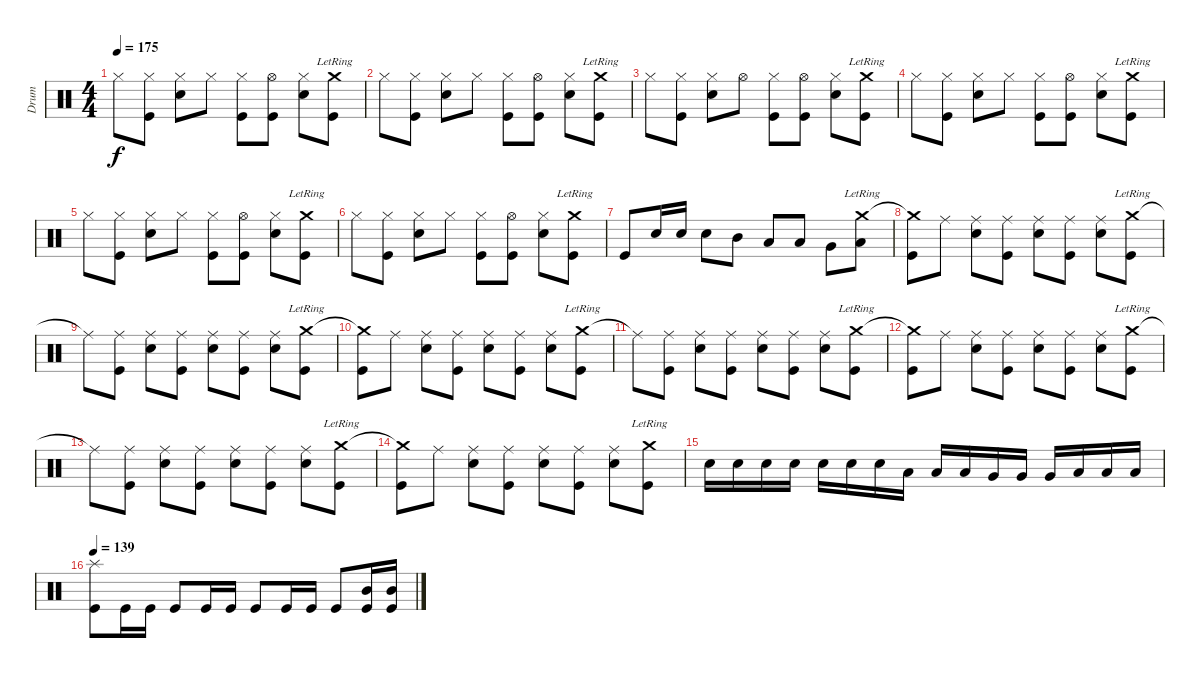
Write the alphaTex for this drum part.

\track ("Drum" "Drum") {instrument percussion}
\staff {score}
\articulation defaults
\ts (4 4)
\tempo 175
\clef neutral
\ks c "Hi-Hat (closed)".8{dy f}
("Hi-Hat (closed)" "Kick (hit)").8 ("Hi-Hat (closed)" "Snare (hit) 2").8 "Hi-Hat (closed)".8 ("Hi-Hat (closed)" "Kick (hit)").8 ("Hi-Hat (open)" "Kick (hit)").8 ("Hi-Hat (closed)" "Snare (hit) 2").8 ("Crash medium (hit)"{lr} "Kick (hit)").8 |
"Hi-Hat (closed)".8 ("Hi-Hat (closed)" "Kick (hit)").8 ("Hi-Hat (closed)" "Snare (hit) 2").8 "Hi-Hat (closed)".8 ("Hi-Hat (closed)" "Kick (hit)").8 ("Hi-Hat (open)" "Kick (hit)").8 ("Hi-Hat (closed)" "Snare (hit) 2").8 ("Crash medium (hit)"{lr} "Kick (hit)").8 |
"Hi-Hat (closed)".8 ("Hi-Hat (closed)" "Kick (hit)").8 ("Hi-Hat (closed)" "Snare (hit) 2").8 "Hi-Hat (open)".8 ("Hi-Hat (closed)" "Kick (hit)").8 ("Hi-Hat (open)" "Kick (hit)").8 ("Hi-Hat (closed)" "Snare (hit) 2").8 ("Crash medium (hit)"{lr} "Kick (hit)").8 |
"Hi-Hat (closed)".8 ("Hi-Hat (closed)" "Kick (hit)").8 ("Hi-Hat (closed)" "Snare (hit) 2").8 "Hi-Hat (closed)".8 ("Hi-Hat (closed)" "Kick (hit)").8 ("Hi-Hat (open)" "Kick (hit)").8 ("Hi-Hat (closed)" "Snare (hit) 2").8 ("Crash medium (hit)"{lr} "Kick (hit)").8 |
"Hi-Hat (closed)".8 ("Hi-Hat (closed)" "Kick (hit)").8 ("Hi-Hat (closed)" "Snare (hit) 2").8 "Hi-Hat (closed)".8 ("Hi-Hat (closed)" "Kick (hit)").8 ("Hi-Hat (open)" "Kick (hit)").8 ("Hi-Hat (closed)" "Snare (hit) 2").8 ("Crash medium (hit)"{lr} "Kick (hit)").8 |
"Hi-Hat (closed)".8 ("Hi-Hat (closed)" "Kick (hit)").8 ("Hi-Hat (closed)" "Snare (hit) 2").8 "Hi-Hat (closed)".8 ("Hi-Hat (closed)" "Kick (hit)").8 ("Hi-Hat (open)" "Kick (hit)").8 ("Hi-Hat (closed)" "Snare (hit) 2").8 ("Crash medium (hit)"{lr} "Kick (hit)").8 |
"Kick (hit)".8 "Snare (hit) 2".16 "Snare (hit) 2".16 "Snare (hit) 2".8 "Mid Tom (hit)".8 "Low Tom (hit)".8 "Low Tom (hit)".8 "Very Low Tom (hit)".8 ("Crash medium (hit)"{lr} "Low Floor Tom (hit)").8 |
("Crash medium (hit)"{t} "Kick (hit)").8 "Ride (middle)".8 ("Ride (middle)" "Snare (hit) 2").8 ("Ride (middle)" "Kick (hit)").8 ("Ride (middle)" "Snare (hit) 2").8 ("Ride (middle)" "Kick (hit)").8 ("Ride (middle)" "Snare (hit) 2").8 ("Crash medium (hit)"{lr} "Kick (hit)").8 |
"Ride (middle)"{t}.8 ("Ride (middle)" "Kick (hit)").8 ("Ride (middle)" "Snare (hit) 2").8 ("Ride (middle)" "Kick (hit)").8 ("Ride (middle)" "Snare (hit) 2").8 ("Ride (middle)" "Kick (hit)").8 ("Ride (middle)" "Snare (hit) 2").8 ("Crash medium (hit)"{lr} "Kick (hit)").8 |
("Crash medium (hit)"{t} "Kick (hit)").8 "Ride (middle)".8 ("Ride (middle)" "Snare (hit) 2").8 ("Ride (middle)" "Kick (hit)").8 ("Ride (middle)" "Snare (hit) 2").8 ("Ride (middle)" "Kick (hit)").8 ("Ride (middle)" "Snare (hit) 2").8 ("Crash medium (hit)"{lr} "Kick (hit)").8 |
"Ride (middle)"{t}.8 ("Ride (middle)" "Kick (hit)").8 ("Ride (middle)" "Snare (hit) 2").8 ("Ride (middle)" "Kick (hit)").8 ("Ride (middle)" "Snare (hit) 2").8 ("Ride (middle)" "Kick (hit)").8 ("Ride (middle)" "Snare (hit) 2").8 ("Crash medium (hit)"{lr} "Kick (hit)").8 |
("Crash medium (hit)"{t} "Kick (hit)").8 "Ride (middle)".8 ("Ride (middle)" "Snare (hit) 2").8 ("Ride (middle)" "Kick (hit)").8 ("Ride (middle)" "Snare (hit) 2").8 ("Ride (middle)" "Kick (hit)").8 ("Ride (middle)" "Snare (hit) 2").8 ("Crash medium (hit)"{lr} "Kick (hit)").8 |
"Ride (middle)"{t}.8 ("Ride (middle)" "Kick (hit)").8 ("Ride (middle)" "Snare (hit) 2").8 ("Ride (middle)" "Kick (hit)").8 ("Ride (middle)" "Snare (hit) 2").8 ("Ride (middle)" "Kick (hit)").8 ("Ride (middle)" "Snare (hit) 2").8 ("Crash medium (hit)"{lr} "Kick (hit)").8 |
("Crash medium (hit)"{t} "Kick (hit)").8 "Ride (middle)".8 ("Ride (middle)" "Snare (hit) 2").8 ("Ride (middle)" "Kick (hit)").8 ("Ride (middle)" "Snare (hit) 2").8 ("Ride (middle)" "Kick (hit)").8 ("Ride (middle)" "Snare (hit) 2").8 ("Crash medium (hit)"{lr} "Kick (hit)").8 |
"Snare (hit) 2".16 "Snare (hit) 2".16 "Snare (hit) 2".16 "Snare (hit) 2".16 "Snare (hit) 2".16 "Snare (hit) 2".16 "Snare (hit) 2".16 "Low Tom (hit)".16 "Low Tom (hit)".16 "Low Tom (hit)".16 "Very Low Tom (hit)".16 "Very Low Tom (hit)".16 "Very Low Tom (hit)".16 "Low Floor Tom (hit)".16 "Low Floor Tom (hit)".16 "Low Floor Tom (hit)".16 |
\tempo 139
("Splash (hit)" "Kick (hit)").8 "Kick (hit)".16 "Kick (hit)".16 "Kick (hit)".8 "Kick (hit)".16 "Kick (hit)".16 "Kick (hit)".8 "Kick (hit)".16 "Kick (hit)".16 "Kick (hit)".8 ("Mid Tom (hit)" "Kick (hit)").16 ("Mid Tom (hit)" "Kick (hit)").16
